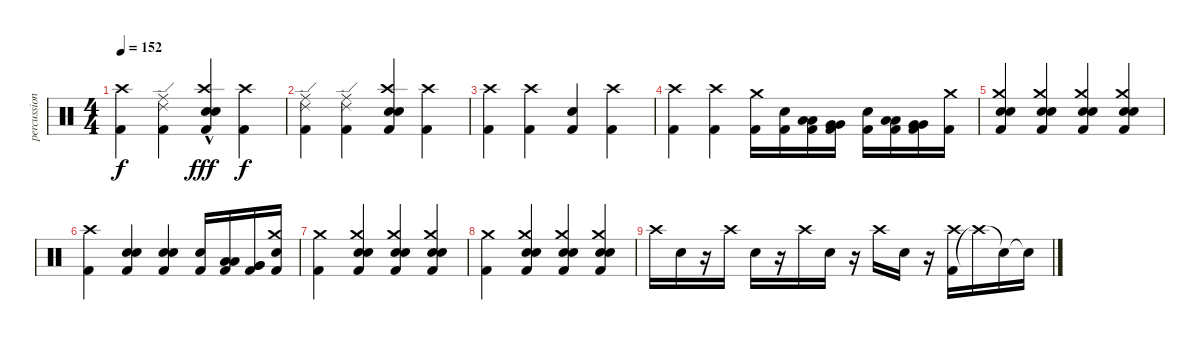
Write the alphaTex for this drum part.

\track ("percussion" "percussion") {instrument percussion bank 177}
\staff {score}
\articulation defaults
\ts (4 4)
\tempo 152
\clef neutral
\ks c
("Kick (hit) 2" "Crash high (hit)").4{dy f} ("Kick (hit) 2" "Ride (edge) 2" "Ride (middle)").4 ("Kick (hit) 2" "Electric Snare (hit)"{hac} "Electric Snare (hit)"{hac} "Crash high (hit)").4{dy fff} ("Kick (hit) 2" "Crash high (hit)").4{dy f} |
("Kick (hit) 2" "Ride (edge) 2" "Ride (middle)").4 ("Kick (hit) 2" "Ride (edge) 2" "Ride (middle)").4 ("Kick (hit) 2" "Electric Snare (hit)" "Electric Snare (hit)" "Crash high (hit)").4 ("Kick (hit) 2" "Crash high (hit)").4 |
("Kick (hit) 2" "Crash high (hit)").4 ("Kick (hit) 2" "Crash high (hit)").4 ("Kick (hit) 2" "Electric Snare (hit)").4 ("Kick (hit) 2" "Crash high (hit)").4 |
("Kick (hit) 2" "Crash high (hit)").4 ("Kick (hit) 2" "Crash high (hit)").4 ("Kick (hit) 2" "Crash medium (hit)").16 ("Kick (hit) 2" "Electric Snare (hit)").16 ("Kick (hit) 2" "Low Tom (hit)" "Low Tom (hit)").16 ("Kick (hit) 2" "Very Low Tom (hit)" "Very Low Tom (hit)").16 ("Kick (hit) 2" "Electric Snare (hit)").16 ("Kick (hit) 2" "Low Tom (hit)" "Low Tom (hit)").16 ("Kick (hit) 2" "Very Low Tom (hit)" "Very Low Tom (hit)").16 ("Kick (hit) 2" "Crash medium (hit)").16 |
("Kick (hit) 2" "Snare (hit) 2" "Snare (hit) 2" "Crash medium (hit)").4 ("Kick (hit) 2" "Snare (hit) 2" "Snare (hit) 2" "Crash medium (hit)").4 ("Kick (hit) 2" "Snare (hit) 2" "Snare (hit) 2" "Crash medium (hit)").4 ("Kick (hit) 2" "Snare (hit) 2" "Snare (hit) 2" "Crash medium (hit)").4 |
("Kick (hit) 2" "Crash high (hit)").4 ("Kick (hit) 2" "Snare (hit) 2" "Snare (hit) 2").4 ("Kick (hit) 2" "Snare (hit) 2" "Snare (hit) 2").4 ("Kick (hit) 2" "Snare (hit) 2").16 ("Kick (hit) 2" "Low Tom (hit)" "Low Tom (hit)").16 ("Kick (hit) 2" "Very Low Tom (hit)" "Very Low Tom (hit)").16 ("Kick (hit) 2" "Snare (hit) 2" "Crash medium (hit)").16 |
("Kick (hit) 2" "Crash medium (hit)").4 ("Kick (hit) 2" "Snare (hit) 2" "Snare (hit) 2" "Crash medium (hit)").4 ("Kick (hit) 2" "Snare (hit) 2" "Snare (hit) 2" "Crash medium (hit)").4 ("Kick (hit) 2" "Snare (hit) 2" "Snare (hit) 2" "Crash medium (hit)").4 |
("Kick (hit) 2" "Crash medium (hit)").4 ("Kick (hit) 2" "Snare (hit) 2" "Snare (hit) 2" "Crash medium (hit)").4 ("Kick (hit) 2" "Snare (hit) 2" "Snare (hit) 2" "Crash medium (hit)").4 ("Kick (hit) 2" "Snare (hit) 2" "Snare (hit) 2" "Crash medium (hit)").4 |
"Crash high (hit)".16 "Snare (hit) 2".16 r.16 "Crash high (hit)".16 "Snare (hit) 2".16 r.16 "Crash high (hit)".16 "Snare (hit) 2".16 r.16 "Crash high (hit)".16 "Snare (hit) 2".16 r.16 ("Kick (hit) 2" "Crash high (hit)").16 "Crash high (hit)"{t}.16 "Snare (hit)"{t}.16 "Snare (hit)"{t}.16
